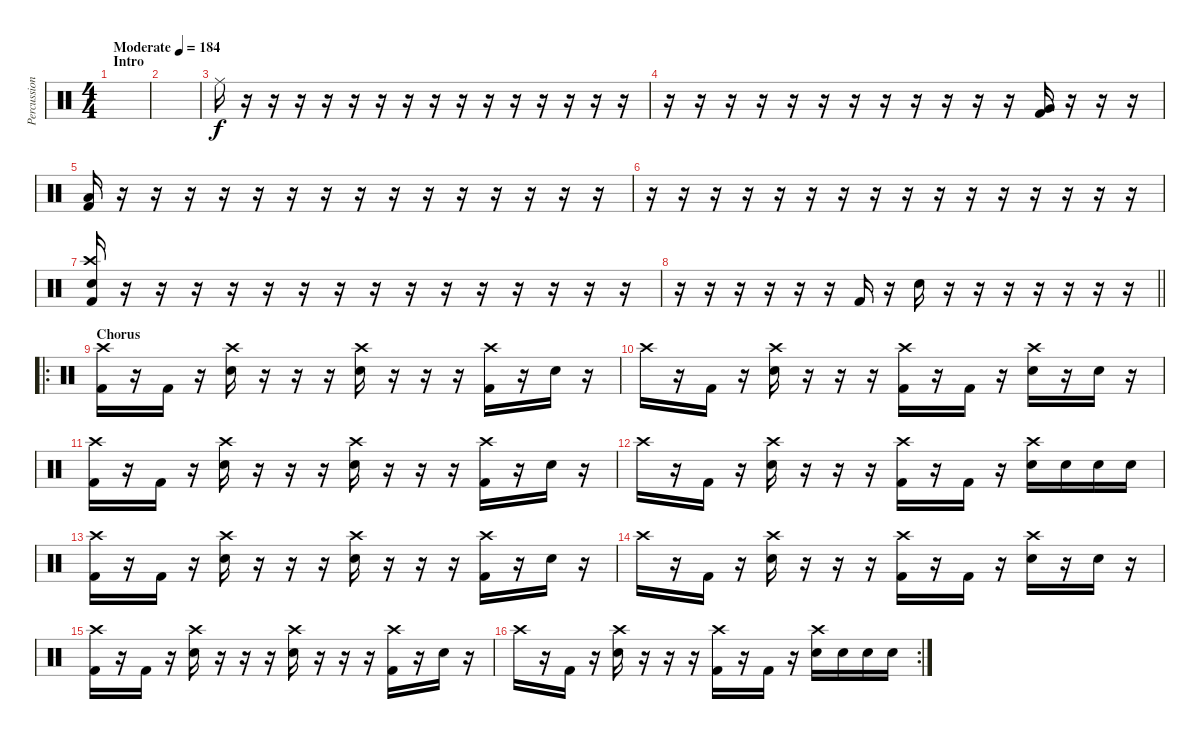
\track ("Percussion" "Percussion") {instrument percussion}
\staff {score}
\articulation defaults
\ts (4 4)
\section ("" "Intro")
\tempo (184 "Moderate")
\clef neutral
\ks c
|
|
"Ride (middle)".16 r.16 r.16 r.16 r.16 r.16 r.16 r.16 r.16 r.16 r.16 r.16 r.16 r.16 r.16 r.16 |
r.16 r.16 r.16 r.16 r.16 r.16 r.16 r.16 r.16 r.16 r.16 r.16 ("Very Low Tom (hit)" "Kick (hit) 2").16 r.16 r.16 r.16 |
("Low Floor Tom (hit)" "Kick (hit) 2").16 r.16 r.16 r.16 r.16 r.16 r.16 r.16 r.16 r.16 r.16 r.16 r.16 r.16 r.16 r.16 |
r.16 r.16 r.16 r.16 r.16 r.16 r.16 r.16 r.16 r.16 r.16 r.16 r.16 r.16 r.16 r.16 |
("Crash high (hit)" "Electric Snare (hit)" "Kick (hit) 2").16 r.16 r.16 r.16 r.16 r.16 r.16 r.16 r.16 r.16 r.16 r.16 r.16 r.16 r.16 r.16 |
\barLineRight lightlight
r.16 r.16 r.16 r.16 r.16 r.16 "Kick (hit) 2".16 r.16 "Electric Snare (hit)".16 r.16 r.16 r.16 r.16 r.16 r.16 r.16 |
\ro
\section ("" "Chorus")
("Crash high (hit)" "Kick (hit) 2").16 r.16 "Kick (hit) 2".16 r.16 ("Crash high (hit)" "Electric Snare (hit)").16 r.16 r.16 r.16 ("Crash high (hit)" "Electric Snare (hit)").16 r.16 r.16 r.16 ("Crash high (hit)" "Kick (hit) 2").16 r.16 "Electric Snare (hit)".16 r.16 |
"Crash high (hit)".16 r.16 "Kick (hit) 2".16 r.16 ("Crash high (hit)" "Electric Snare (hit)").16 r.16 r.16 r.16 ("Crash high (hit)" "Kick (hit) 2").16 r.16 "Kick (hit) 2".16 r.16 ("Crash high (hit)" "Electric Snare (hit)").16 r.16 "Electric Snare (hit)".16 r.16 |
("Crash high (hit)" "Kick (hit) 2").16 r.16 "Kick (hit) 2".16 r.16 ("Crash high (hit)" "Electric Snare (hit)").16 r.16 r.16 r.16 ("Crash high (hit)" "Electric Snare (hit)").16 r.16 r.16 r.16 ("Crash high (hit)" "Kick (hit) 2").16 r.16 "Electric Snare (hit)".16 r.16 |
"Crash high (hit)".16 r.16 "Kick (hit) 2".16 r.16 ("Crash high (hit)" "Electric Snare (hit)").16 r.16 r.16 r.16 ("Crash high (hit)" "Kick (hit) 2").16 r.16 "Kick (hit) 2".16 r.16 ("Crash high (hit)" "Electric Snare (hit)").16 "Electric Snare (hit)".16 "Electric Snare (hit)".16 "Electric Snare (hit)".16 |
("Crash high (hit)" "Kick (hit) 2").16 r.16 "Kick (hit) 2".16 r.16 ("Crash high (hit)" "Electric Snare (hit)").16 r.16 r.16 r.16 ("Crash high (hit)" "Electric Snare (hit)").16 r.16 r.16 r.16 ("Crash high (hit)" "Kick (hit) 2").16 r.16 "Electric Snare (hit)".16 r.16 |
"Crash high (hit)".16 r.16 "Kick (hit) 2".16 r.16 ("Crash high (hit)" "Electric Snare (hit)").16 r.16 r.16 r.16 ("Crash high (hit)" "Kick (hit) 2").16 r.16 "Kick (hit) 2".16 r.16 ("Crash high (hit)" "Electric Snare (hit)").16 r.16 "Electric Snare (hit)".16 r.16 |
("Crash high (hit)" "Kick (hit) 2").16 r.16 "Kick (hit) 2".16 r.16 ("Crash high (hit)" "Electric Snare (hit)").16 r.16 r.16 r.16 ("Crash high (hit)" "Electric Snare (hit)").16 r.16 r.16 r.16 ("Crash high (hit)" "Kick (hit) 2").16 r.16 "Electric Snare (hit)".16 r.16 |
\rc 2 "Crash high (hit)".16
r.16 "Kick (hit) 2".16 r.16 ("Crash high (hit)" "Electric Snare (hit)").16 r.16 r.16 r.16 ("Crash high (hit)" "Kick (hit) 2").16 r.16 "Kick (hit) 2".16 r.16 ("Crash high (hit)" "Electric Snare (hit)").16 "Electric Snare (hit)".16 "Electric Snare (hit)".16 "Electric Snare (hit)".16
